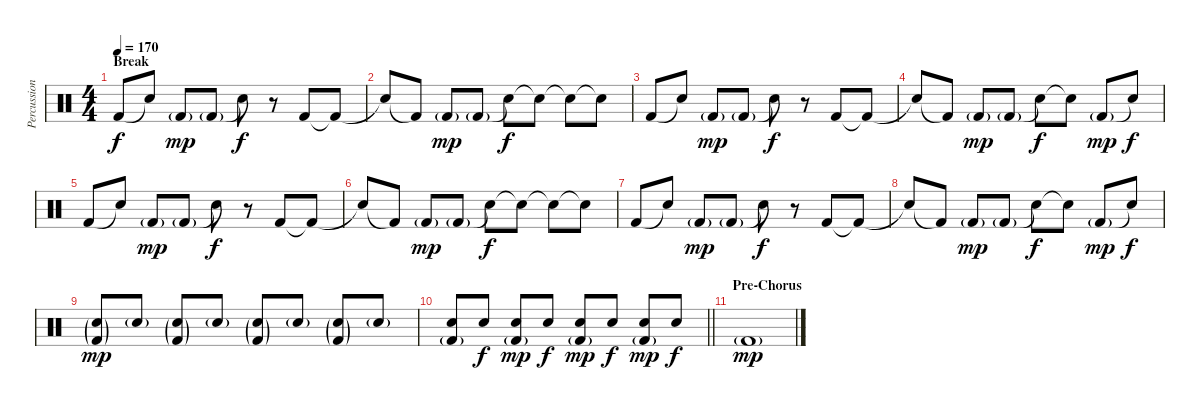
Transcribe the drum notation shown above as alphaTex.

\track ("Percussion" "Percussion") {instrument percussion}
\staff {score}
\articulation defaults
\ts (4 4)
\section ("" "Break")
\tempo 170
\clef neutral
\ks c "Kick (hit) 2".8{dy f} "Snare (hit)"{t}.8 "Kick (hit) 2"{g}.8{dy mp} "Kick (hit) 2"{g}.8 "Snare (hit)"{t}.8{dy f}
r.8 "Kick (hit) 2".8 "Kick (hit) 2"{t}.8 |
"Snare (hit)"{t}.8 "Kick (hit) 2"{t}.8 "Kick (hit) 2"{g}.8{dy mp} "Kick (hit) 2"{g}.8 "Snare (hit)"{t}.8{dy f} "Snare (hit)"{t}.8 "Snare (hit)"{t}.8 "Snare (hit)"{t}.8 |
"Kick (hit) 2".8 "Snare (hit)"{t}.8 "Kick (hit) 2"{g}.8{dy mp} "Kick (hit) 2"{g}.8 "Snare (hit)"{t}.8{dy f} r.8 "Kick (hit) 2".8 "Kick (hit) 2"{t}.8 |
"Snare (hit)"{t}.8 "Kick (hit) 2"{t}.8 "Kick (hit) 2"{g}.8{dy mp} "Kick (hit) 2"{g}.8 "Snare (hit)"{t}.8{dy f} "Snare (hit)"{t}.8 "Kick (hit) 2"{g}.8{dy mp} "Snare (hit)"{t}.8{dy f} |
"Kick (hit) 2".8 "Snare (hit)"{t}.8 "Kick (hit) 2"{g}.8{dy mp} "Kick (hit) 2"{g}.8 "Snare (hit)"{t}.8{dy f} r.8 "Kick (hit) 2".8 "Kick (hit) 2"{t}.8 |
"Snare (hit)"{t}.8 "Kick (hit) 2"{t}.8 "Kick (hit) 2"{g}.8{dy mp} "Kick (hit) 2"{g}.8 "Snare (hit)"{t}.8{dy f} "Snare (hit)"{t}.8 "Snare (hit)"{t}.8 "Snare (hit)"{t}.8 |
"Kick (hit) 2".8 "Snare (hit)"{t}.8 "Kick (hit) 2"{g}.8{dy mp} "Kick (hit) 2"{g}.8 "Snare (hit)"{t}.8{dy f} r.8 "Kick (hit) 2".8 "Kick (hit) 2"{t}.8 |
"Snare (hit)"{t}.8 "Kick (hit) 2"{t}.8 "Kick (hit) 2"{g}.8{dy mp} "Kick (hit) 2"{g}.8 "Snare (hit)"{t}.8{dy f} "Snare (hit)"{t}.8 "Kick (hit) 2"{g}.8{dy mp} "Snare (hit)"{t}.8{dy f} |
("Electric Snare (hit)"{g} "Kick (hit) 2"{g}).8{dy mp} "Electric Snare (hit)"{g}.8 ("Electric Snare (hit)"{g} "Kick (hit) 2"{g}).8 "Electric Snare (hit)"{g}.8 ("Electric Snare (hit)"{g} "Kick (hit) 2"{g}).8 "Electric Snare (hit)"{g}.8 ("Electric Snare (hit)"{g} "Kick (hit) 2"{g}).8 "Electric Snare (hit)"{g}.8 |
\barLineRight lightlight
("Electric Snare (hit)" "Kick (hit) 2"{g}).8 "Electric Snare (hit)".8{dy f} ("Electric Snare (hit)" "Kick (hit) 2"{g}).8{dy mp} "Electric Snare (hit)".8{dy f} ("Electric Snare (hit)" "Kick (hit) 2"{g}).8{dy mp} "Electric Snare (hit)".8{dy f} ("Electric Snare (hit)" "Kick (hit) 2"{g}).8{dy mp} "Electric Snare (hit)".8{dy f} |
\section ("" "Pre-Chorus")
"Kick (hit) 2"{g}.1{dy mp}
